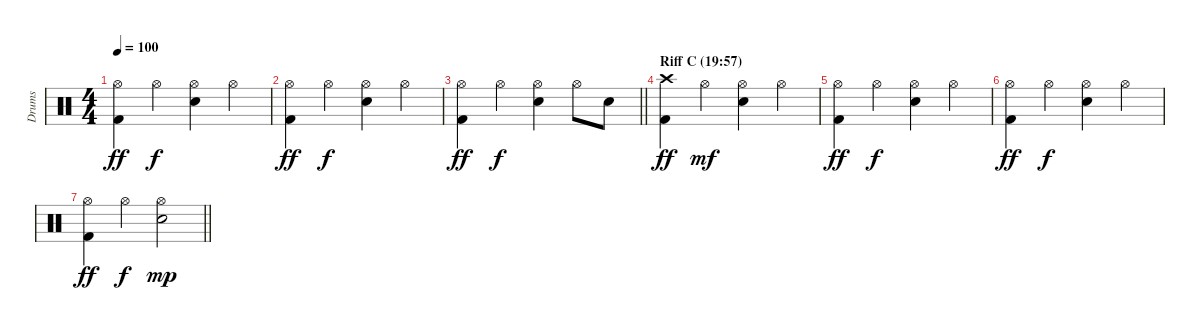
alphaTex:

\track ("Drums" "Drums") {instrument percussion}
\staff {score}
\articulation defaults
\ts (4 4)
\tempo 100
\clef neutral
\ks c
("Hi-Hat (open)" "Kick (hit) 2").4{dy ff} "Hi-Hat (open)".4{dy f} ("Hi-Hat (open)" "Electric Snare (hit)").4 "Hi-Hat (open)".4 |
("Hi-Hat (open)" "Kick (hit) 2").4{dy ff} "Hi-Hat (open)".4{dy f} ("Hi-Hat (open)" "Electric Snare (hit)").4 "Hi-Hat (open)".4 |
\barLineRight lightlight
("Hi-Hat (open)" "Kick (hit) 2").4{dy ff} "Hi-Hat (open)".4{dy f} ("Hi-Hat (open)" "Electric Snare (hit)").4 "Hi-Hat (open)".8 "Electric Snare (hit)".8 |
\section ("" "Riff C (19:57)")
("Crash high (hit)" "Kick (hit) 2").4{dy ff volume 0} "Hi-Hat (open)".4{dy mf} ("Hi-Hat (open)" "Electric Snare (hit)").4 "Hi-Hat (open)".4 |
("Hi-Hat (open)" "Kick (hit) 2").4{dy ff} "Hi-Hat (open)".4{dy f} ("Hi-Hat (open)" "Electric Snare (hit)").4 "Hi-Hat (open)".4 |
("Hi-Hat (open)" "Kick (hit) 2").4{dy ff} "Hi-Hat (open)".4{dy f} ("Hi-Hat (open)" "Electric Snare (hit)").4 "Hi-Hat (open)".4 |
\barLineRight lightlight
("Hi-Hat (open)" "Kick (hit) 2").4{dy ff} "Hi-Hat (open)".4{dy f} ("Hi-Hat (open)" "Electric Snare (hit)").2{dy mp}
